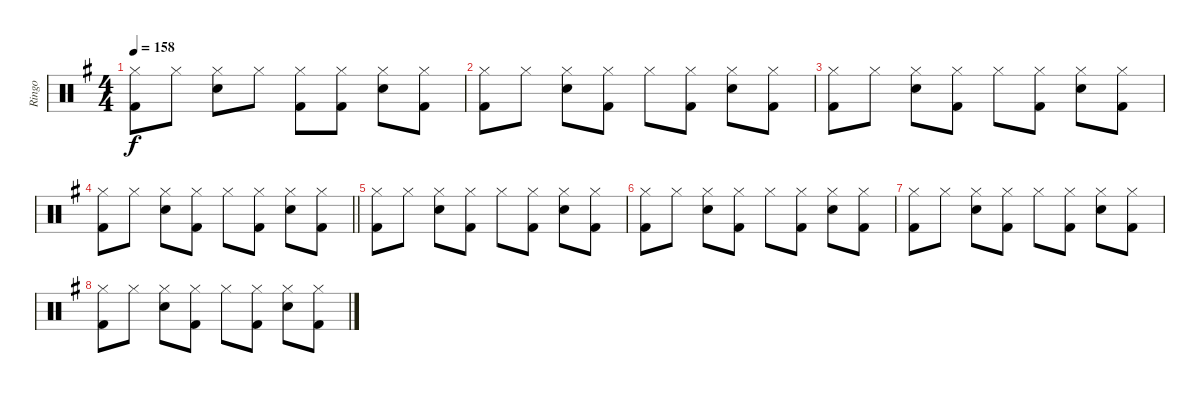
\track ("Ringo" "Ringo") {instrument percussion}
\staff {score}
\articulation defaults
\ts (4 4)
\tempo 158
\clef neutral
\ks g
("Hi-Hat (closed)" "Kick (hit) 2").8{dy f} "Hi-Hat (closed)".8 ("Hi-Hat (closed)" "Electric Snare (hit)").8 "Hi-Hat (closed)".8 ("Hi-Hat (closed)" "Kick (hit) 2").8 ("Hi-Hat (closed)" "Kick (hit) 2").8 ("Hi-Hat (closed)" "Electric Snare (hit)").8 ("Hi-Hat (closed)" "Kick (hit) 2").8 |
("Hi-Hat (closed)" "Kick (hit) 2").8 "Hi-Hat (closed)".8 ("Hi-Hat (closed)" "Electric Snare (hit)").8 ("Hi-Hat (closed)" "Kick (hit) 2").8 "Hi-Hat (closed)".8 ("Hi-Hat (closed)" "Kick (hit) 2").8 ("Hi-Hat (closed)" "Electric Snare (hit)").8 ("Hi-Hat (closed)" "Kick (hit) 2").8 |
("Hi-Hat (closed)" "Kick (hit) 2").8 "Hi-Hat (closed)".8 ("Hi-Hat (closed)" "Electric Snare (hit)").8 ("Hi-Hat (closed)" "Kick (hit) 2").8 "Hi-Hat (closed)".8 ("Hi-Hat (closed)" "Kick (hit) 2").8 ("Hi-Hat (closed)" "Electric Snare (hit)").8 ("Hi-Hat (closed)" "Kick (hit) 2").8 |
\barLineRight lightlight
("Hi-Hat (closed)" "Kick (hit) 2").8 "Hi-Hat (closed)".8 ("Hi-Hat (closed)" "Electric Snare (hit)").8 ("Hi-Hat (closed)" "Kick (hit) 2").8 "Hi-Hat (closed)".8 ("Hi-Hat (closed)" "Kick (hit) 2").8 ("Hi-Hat (closed)" "Electric Snare (hit)").8 ("Hi-Hat (closed)" "Kick (hit) 2").8 |
("Hi-Hat (closed)" "Kick (hit) 2").8 "Hi-Hat (closed)".8 ("Hi-Hat (closed)" "Electric Snare (hit)").8 ("Hi-Hat (closed)" "Kick (hit) 2").8 "Hi-Hat (closed)".8 ("Hi-Hat (closed)" "Kick (hit) 2").8 ("Hi-Hat (closed)" "Electric Snare (hit)").8 ("Hi-Hat (closed)" "Kick (hit) 2").8 |
("Hi-Hat (closed)" "Kick (hit) 2").8 "Hi-Hat (closed)".8 ("Hi-Hat (closed)" "Electric Snare (hit)").8 ("Hi-Hat (closed)" "Kick (hit) 2").8 "Hi-Hat (closed)".8 ("Hi-Hat (closed)" "Kick (hit) 2").8 ("Hi-Hat (closed)" "Electric Snare (hit)").8 ("Hi-Hat (closed)" "Kick (hit) 2").8 |
("Hi-Hat (closed)" "Kick (hit) 2").8 "Hi-Hat (closed)".8 ("Hi-Hat (closed)" "Electric Snare (hit)").8 ("Hi-Hat (closed)" "Kick (hit) 2").8 "Hi-Hat (closed)".8 ("Hi-Hat (closed)" "Kick (hit) 2").8 ("Hi-Hat (closed)" "Electric Snare (hit)").8 ("Hi-Hat (closed)" "Kick (hit) 2").8 |
("Hi-Hat (closed)" "Kick (hit) 2").8 "Hi-Hat (closed)".8 ("Hi-Hat (closed)" "Electric Snare (hit)").8 ("Hi-Hat (closed)" "Kick (hit) 2").8 "Hi-Hat (closed)".8 ("Hi-Hat (closed)" "Kick (hit) 2").8 ("Hi-Hat (closed)" "Electric Snare (hit)").8 ("Hi-Hat (closed)" "Kick (hit) 2").8
